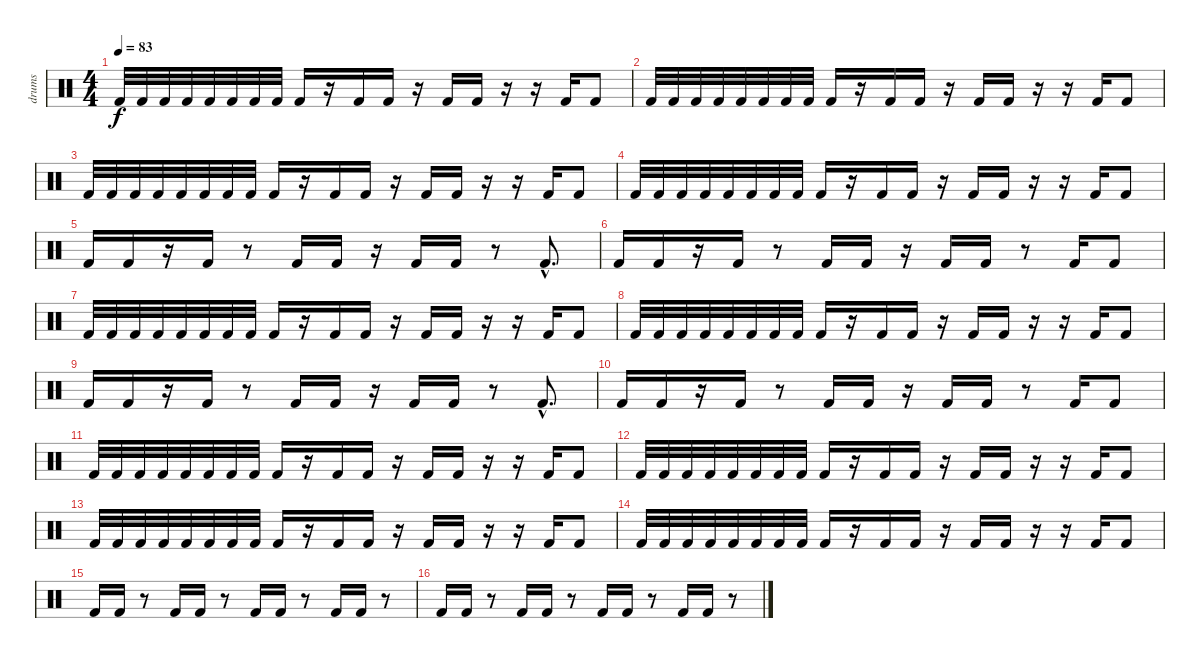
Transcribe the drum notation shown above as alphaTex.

\track ("drums" "drums") {instrument percussion}
\staff {score}
\articulation defaults
\ts (4 4)
\tempo 83
\clef neutral
\ks c "Kick (hit) 2".32{dy f} "Kick (hit) 2".32 "Kick (hit) 2".32 "Kick (hit) 2".32 "Kick (hit) 2".32 "Kick (hit) 2".32 "Kick (hit) 2".32 "Kick (hit) 2".32 "Kick (hit) 2".16
r.16 "Kick (hit) 2".16 "Kick (hit) 2".16 r.16 "Kick (hit) 2".16 "Kick (hit) 2".16 r.16 r.16 "Kick (hit) 2".16 "Kick (hit) 2".8 |
"Kick (hit) 2".32 "Kick (hit) 2".32 "Kick (hit) 2".32 "Kick (hit) 2".32 "Kick (hit) 2".32 "Kick (hit) 2".32 "Kick (hit) 2".32 "Kick (hit) 2".32 "Kick (hit) 2".16 r.16 "Kick (hit) 2".16 "Kick (hit) 2".16 r.16 "Kick (hit) 2".16 "Kick (hit) 2".16 r.16 r.16 "Kick (hit) 2".16 "Kick (hit) 2".8 |
"Kick (hit) 2".32 "Kick (hit) 2".32 "Kick (hit) 2".32 "Kick (hit) 2".32 "Kick (hit) 2".32 "Kick (hit) 2".32 "Kick (hit) 2".32 "Kick (hit) 2".32 "Kick (hit) 2".16 r.16 "Kick (hit) 2".16 "Kick (hit) 2".16 r.16 "Kick (hit) 2".16 "Kick (hit) 2".16 r.16 r.16 "Kick (hit) 2".16 "Kick (hit) 2".8 |
"Kick (hit) 2".32 "Kick (hit) 2".32 "Kick (hit) 2".32 "Kick (hit) 2".32 "Kick (hit) 2".32 "Kick (hit) 2".32 "Kick (hit) 2".32 "Kick (hit) 2".32 "Kick (hit) 2".16 r.16 "Kick (hit) 2".16 "Kick (hit) 2".16 r.16 "Kick (hit) 2".16 "Kick (hit) 2".16 r.16 r.16 "Kick (hit) 2".16 "Kick (hit) 2".8 |
"Kick (hit) 2".16 "Kick (hit) 2".16 r.16 "Kick (hit) 2".16 r.8 "Kick (hit) 2".16 "Kick (hit) 2".16 r.16 "Kick (hit) 2".16 "Kick (hit) 2".16 r.8 "Kick (hit) 2"{hac}.8{d} |
"Kick (hit) 2".16 "Kick (hit) 2".16 r.16 "Kick (hit) 2".16 r.8 "Kick (hit) 2".16 "Kick (hit) 2".16 r.16 "Kick (hit) 2".16 "Kick (hit) 2".16 r.8 "Kick (hit) 2".16 "Kick (hit) 2".8 |
"Kick (hit) 2".32 "Kick (hit) 2".32 "Kick (hit) 2".32 "Kick (hit) 2".32 "Kick (hit) 2".32 "Kick (hit) 2".32 "Kick (hit) 2".32 "Kick (hit) 2".32 "Kick (hit) 2".16 r.16 "Kick (hit) 2".16 "Kick (hit) 2".16 r.16 "Kick (hit) 2".16 "Kick (hit) 2".16 r.16 r.16 "Kick (hit) 2".16 "Kick (hit) 2".8 |
"Kick (hit) 2".32 "Kick (hit) 2".32 "Kick (hit) 2".32 "Kick (hit) 2".32 "Kick (hit) 2".32 "Kick (hit) 2".32 "Kick (hit) 2".32 "Kick (hit) 2".32 "Kick (hit) 2".16 r.16 "Kick (hit) 2".16 "Kick (hit) 2".16 r.16 "Kick (hit) 2".16 "Kick (hit) 2".16 r.16 r.16 "Kick (hit) 2".16 "Kick (hit) 2".8 |
"Kick (hit) 2".16 "Kick (hit) 2".16 r.16 "Kick (hit) 2".16 r.8 "Kick (hit) 2".16 "Kick (hit) 2".16 r.16 "Kick (hit) 2".16 "Kick (hit) 2".16 r.8 "Kick (hit) 2"{hac}.8{d} |
"Kick (hit) 2".16 "Kick (hit) 2".16 r.16 "Kick (hit) 2".16 r.8 "Kick (hit) 2".16 "Kick (hit) 2".16 r.16 "Kick (hit) 2".16 "Kick (hit) 2".16 r.8 "Kick (hit) 2".16 "Kick (hit) 2".8 |
"Kick (hit) 2".32 "Kick (hit) 2".32 "Kick (hit) 2".32 "Kick (hit) 2".32 "Kick (hit) 2".32 "Kick (hit) 2".32 "Kick (hit) 2".32 "Kick (hit) 2".32 "Kick (hit) 2".16 r.16 "Kick (hit) 2".16 "Kick (hit) 2".16 r.16 "Kick (hit) 2".16 "Kick (hit) 2".16 r.16 r.16 "Kick (hit) 2".16 "Kick (hit) 2".8 |
"Kick (hit) 2".32 "Kick (hit) 2".32 "Kick (hit) 2".32 "Kick (hit) 2".32 "Kick (hit) 2".32 "Kick (hit) 2".32 "Kick (hit) 2".32 "Kick (hit) 2".32 "Kick (hit) 2".16 r.16 "Kick (hit) 2".16 "Kick (hit) 2".16 r.16 "Kick (hit) 2".16 "Kick (hit) 2".16 r.16 r.16 "Kick (hit) 2".16 "Kick (hit) 2".8 |
"Kick (hit) 2".32 "Kick (hit) 2".32 "Kick (hit) 2".32 "Kick (hit) 2".32 "Kick (hit) 2".32 "Kick (hit) 2".32 "Kick (hit) 2".32 "Kick (hit) 2".32 "Kick (hit) 2".16 r.16 "Kick (hit) 2".16 "Kick (hit) 2".16 r.16 "Kick (hit) 2".16 "Kick (hit) 2".16 r.16 r.16 "Kick (hit) 2".16 "Kick (hit) 2".8 |
"Kick (hit) 2".32 "Kick (hit) 2".32 "Kick (hit) 2".32 "Kick (hit) 2".32 "Kick (hit) 2".32 "Kick (hit) 2".32 "Kick (hit) 2".32 "Kick (hit) 2".32 "Kick (hit) 2".16 r.16 "Kick (hit) 2".16 "Kick (hit) 2".16 r.16 "Kick (hit) 2".16 "Kick (hit) 2".16 r.16 r.16 "Kick (hit) 2".16 "Kick (hit) 2".8 |
"Kick (hit) 2".16 "Kick (hit) 2".16 r.8 "Kick (hit) 2".16 "Kick (hit) 2".16 r.8 "Kick (hit) 2".16 "Kick (hit) 2".16 r.8 "Kick (hit) 2".16 "Kick (hit) 2".16 r.8 |
"Kick (hit) 2".16 "Kick (hit) 2".16 r.8 "Kick (hit) 2".16 "Kick (hit) 2".16 r.8 "Kick (hit) 2".16 "Kick (hit) 2".16 r.8 "Kick (hit) 2".16 "Kick (hit) 2".16 r.8
